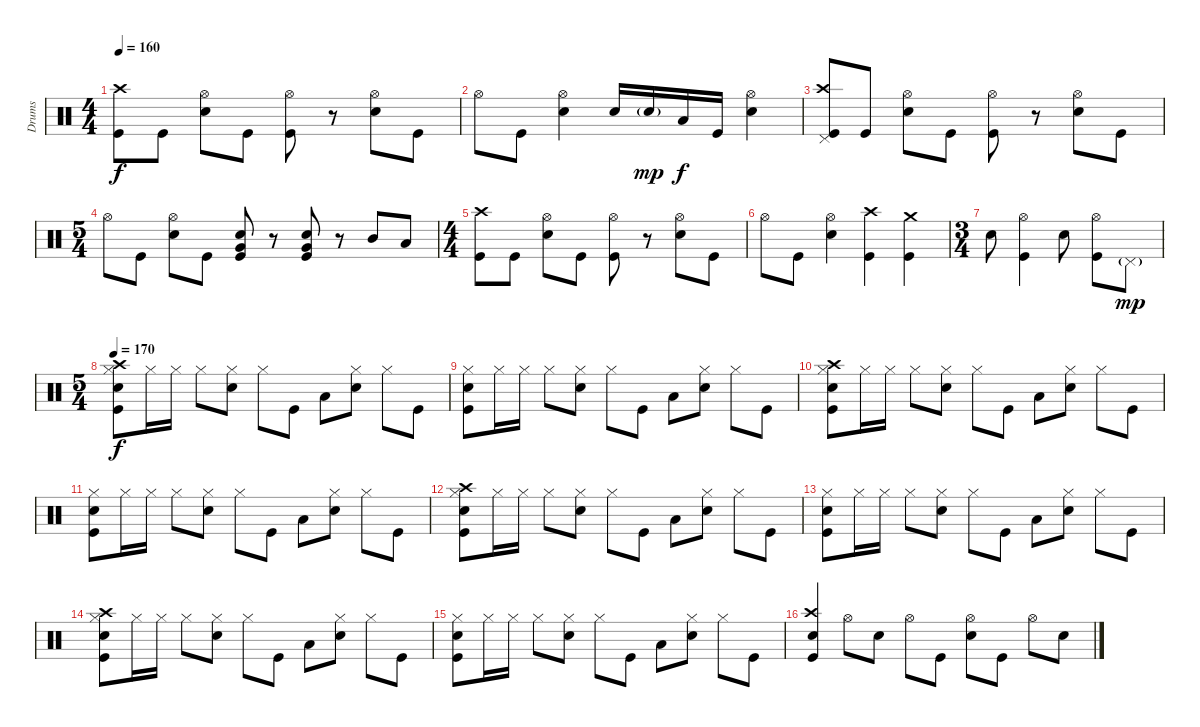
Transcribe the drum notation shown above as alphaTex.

\track ("Drums" "Drums") {instrument percussion}
\staff {score}
\articulation defaults
\ts (4 4)
\tempo 160
\clef neutral
\ks c
("Kick (hit)" "Crash high (hit)").8{dy f} "Kick (hit)".8 ("Snare (hit) 2" "Hi-Hat (open)").8 "Kick (hit)".8 ("Kick (hit)" "Hi-Hat (open)").8 r.8 ("Snare (hit) 2" "Hi-Hat (open)").8 "Kick (hit)".8 |
"Hi-Hat (open)".8 "Kick (hit)".8 ("Snare (hit) 2" "Hi-Hat (open)").4 "Snare (hit) 2".16 "Snare (hit) 2"{g}.16{dy mp} "Low Tom (hit)".16{dy f} "Kick (hit)".16 ("Snare (hit) 2" "Hi-Hat (open)").4 |
("Kick (hit)" "Pedal Hi-Hat (hit)" "Crash high (hit)").8 "Kick (hit)".8 ("Snare (hit) 2" "Hi-Hat (open)").8 "Kick (hit)".8 ("Kick (hit)" "Hi-Hat (open)").8 r.8 ("Snare (hit) 2" "Hi-Hat (open)").8 "Kick (hit)".8 |
\ts (5 4)
"Hi-Hat (open)".8 "Kick (hit)".8 ("Snare (hit) 2" "Hi-Hat (open)").8 "Kick (hit)".8 ("Kick (hit)" "Snare (hit) 2" "Very Low Tom (hit)").8 r.8 ("Kick (hit)" "Snare (hit) 2" "Very Low Tom (hit)").8 r.8 "Mid Tom (hit)".8 "Low Tom (hit)".8 |
\ts (4 4)
("Kick (hit)" "Crash high (hit)").8 "Kick (hit)".8 ("Snare (hit) 2" "Hi-Hat (open)").8 "Kick (hit)".8 ("Kick (hit)" "Hi-Hat (open)").8 r.8 ("Snare (hit) 2" "Hi-Hat (open)").8 "Kick (hit)".8 |
"Hi-Hat (open)".8 "Kick (hit)".8 ("Snare (hit) 2" "Hi-Hat (open)").4 ("Kick (hit)" "Crash high (hit)").4 ("Kick (hit)" "Crash medium (hit)").4 |
\ts (3 4)
"Snare (hit) 2".8 ("Kick (hit)" "Hi-Hat (open)").4 "Snare (hit) 2".8 ("Kick (hit)" "Hi-Hat (open)").8 "Pedal Hi-Hat (hit)"{g}.8{dy mp} |
\ts (5 4)
\tempo 170
("Kick (hit)" "Snare (hit) 2" "Hi-Hat (closed)" "Crash high (hit)").8{dy f} "Hi-Hat (closed)".16 "Hi-Hat (closed)".16 "Hi-Hat (closed)".8 ("Snare (hit) 2" "Hi-Hat (closed)").8 "Hi-Hat (closed)".8 "Kick (hit)".8 "Low Tom (hit)".8 ("Snare (hit) 2" "Hi-Hat (closed)").8 "Hi-Hat (closed)".8 "Kick (hit)".8 |
("Kick (hit)" "Snare (hit) 2" "Hi-Hat (closed)").8 "Hi-Hat (closed)".16 "Hi-Hat (closed)".16 "Hi-Hat (closed)".8 ("Snare (hit) 2" "Hi-Hat (closed)").8 "Hi-Hat (closed)".8 "Kick (hit)".8 "Low Tom (hit)".8 ("Snare (hit) 2" "Hi-Hat (closed)").8 "Hi-Hat (closed)".8 "Kick (hit)".8 |
("Kick (hit)" "Snare (hit) 2" "Hi-Hat (closed)" "Crash high (hit)").8 "Hi-Hat (closed)".16 "Hi-Hat (closed)".16 "Hi-Hat (closed)".8 ("Snare (hit) 2" "Hi-Hat (closed)").8 "Hi-Hat (closed)".8 "Kick (hit)".8 "Low Tom (hit)".8 ("Snare (hit) 2" "Hi-Hat (closed)").8 "Hi-Hat (closed)".8 "Kick (hit)".8 |
("Kick (hit)" "Snare (hit) 2" "Hi-Hat (closed)").8 "Hi-Hat (closed)".16 "Hi-Hat (closed)".16 "Hi-Hat (closed)".8 ("Snare (hit) 2" "Hi-Hat (closed)").8 "Hi-Hat (closed)".8 "Kick (hit)".8 "Low Tom (hit)".8 ("Snare (hit) 2" "Hi-Hat (closed)").8 "Hi-Hat (closed)".8 "Kick (hit)".8 |
("Kick (hit)" "Snare (hit) 2" "Hi-Hat (closed)" "Crash high (hit)").8 "Hi-Hat (closed)".16 "Hi-Hat (closed)".16 "Hi-Hat (closed)".8 ("Snare (hit) 2" "Hi-Hat (closed)").8 "Hi-Hat (closed)".8 "Kick (hit)".8 "Low Tom (hit)".8 ("Snare (hit) 2" "Hi-Hat (closed)").8 "Hi-Hat (closed)".8 "Kick (hit)".8 |
("Kick (hit)" "Snare (hit) 2" "Hi-Hat (closed)").8 "Hi-Hat (closed)".16 "Hi-Hat (closed)".16 "Hi-Hat (closed)".8 ("Snare (hit) 2" "Hi-Hat (closed)").8 "Hi-Hat (closed)".8 "Kick (hit)".8 "Low Tom (hit)".8 ("Snare (hit) 2" "Hi-Hat (closed)").8 "Hi-Hat (closed)".8 "Kick (hit)".8 |
("Kick (hit)" "Snare (hit) 2" "Hi-Hat (closed)" "Crash high (hit)").8 "Hi-Hat (closed)".16 "Hi-Hat (closed)".16 "Hi-Hat (closed)".8 ("Snare (hit) 2" "Hi-Hat (closed)").8 "Hi-Hat (closed)".8 "Kick (hit)".8 "Low Tom (hit)".8 ("Snare (hit) 2" "Hi-Hat (closed)").8 "Hi-Hat (closed)".8 "Kick (hit)".8 |
("Kick (hit)" "Snare (hit) 2" "Hi-Hat (closed)").8 "Hi-Hat (closed)".16 "Hi-Hat (closed)".16 "Hi-Hat (closed)".8 ("Snare (hit) 2" "Hi-Hat (closed)").8 "Hi-Hat (closed)".8 "Kick (hit)".8 "Low Tom (hit)".8 ("Snare (hit) 2" "Hi-Hat (closed)").8 "Hi-Hat (closed)".8 "Kick (hit)".8 |
("Kick (hit)" "Snare (hit) 2" "Crash high (hit)").4 "Hi-Hat (open)".8 "Snare (hit) 2".8 "Hi-Hat (open)".8 "Kick (hit)".8 ("Snare (hit) 2" "Hi-Hat (open)").8 "Kick (hit)".8 "Hi-Hat (open)".8 "Snare (hit) 2".8
